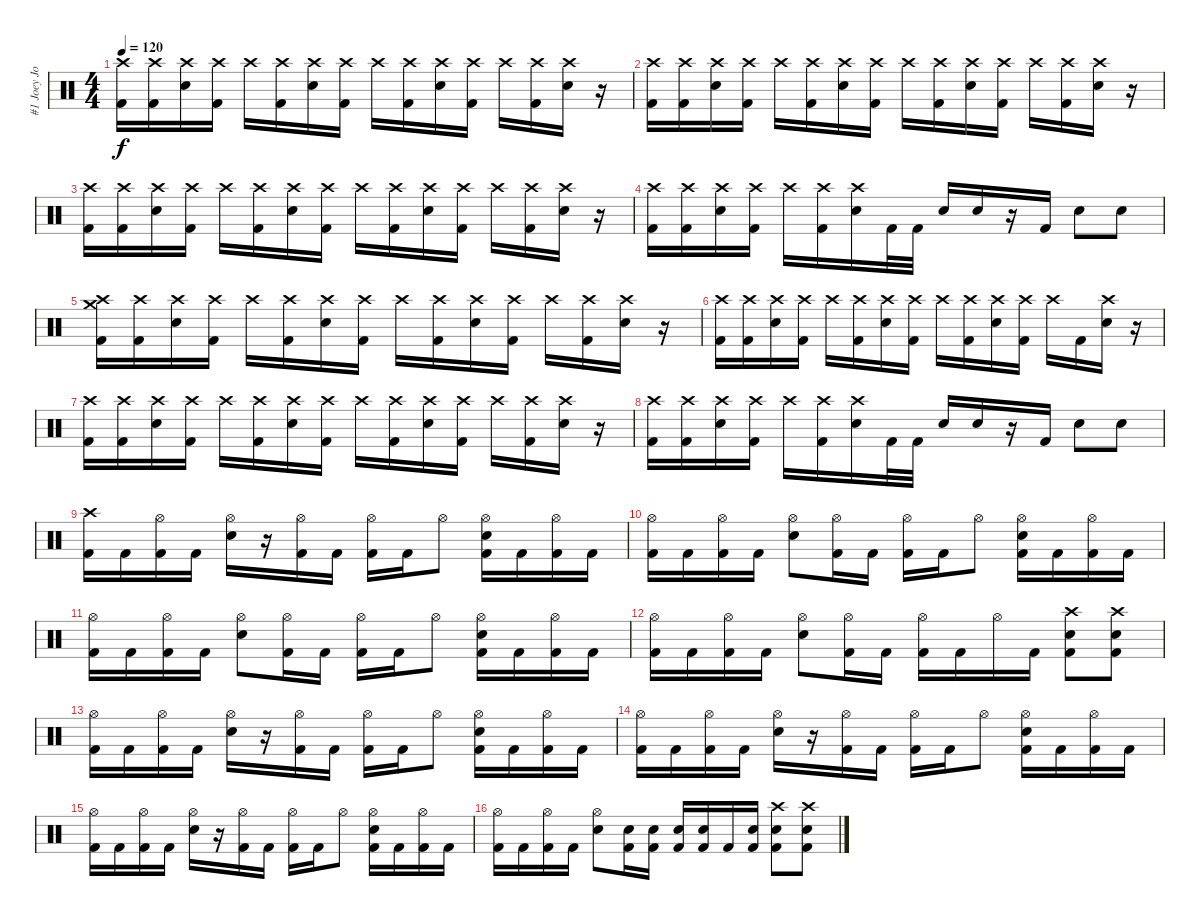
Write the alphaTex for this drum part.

\track ("#1 Joey Jordison" "#1 Joey Jo") {instrument percussion}
\staff {score}
\articulation defaults
\ts (4 4)
\tempo 120
\clef neutral
\ks c
("Crash high (hit)" "Kick (hit) 2").16{dy f} ("Crash high (hit)" "Kick (hit) 2").16 ("Crash high (hit)" "Electric Snare (hit)").16 ("Crash high (hit)" "Kick (hit) 2").16 "Crash high (hit)".16 ("Crash high (hit)" "Kick (hit) 2").16 ("Crash high (hit)" "Electric Snare (hit)").16 ("Crash high (hit)" "Kick (hit) 2").16 "Crash high (hit)".16 ("Crash high (hit)" "Kick (hit) 2").16 ("Crash high (hit)" "Electric Snare (hit)").16 ("Crash high (hit)" "Kick (hit) 2").16 "Crash high (hit)".16 ("Crash high (hit)" "Kick (hit) 2").16 ("Crash high (hit)" "Electric Snare (hit)").16 r.16 |
("Crash high (hit)" "Kick (hit) 2").16 ("Crash high (hit)" "Kick (hit) 2").16 ("Crash high (hit)" "Electric Snare (hit)").16 ("Crash high (hit)" "Kick (hit) 2").16 "Crash high (hit)".16 ("Crash high (hit)" "Kick (hit) 2").16 ("Crash high (hit)" "Electric Snare (hit)").16 ("Crash high (hit)" "Kick (hit) 2").16 "Crash high (hit)".16 ("Crash high (hit)" "Kick (hit) 2").16 ("Crash high (hit)" "Electric Snare (hit)").16 ("Crash high (hit)" "Kick (hit) 2").16 "Crash high (hit)".16 ("Crash high (hit)" "Kick (hit) 2").16 ("Crash high (hit)" "Electric Snare (hit)").16 r.16 |
("Crash high (hit)" "Kick (hit) 2").16 ("Crash high (hit)" "Kick (hit) 2").16 ("Crash high (hit)" "Electric Snare (hit)").16 ("Crash high (hit)" "Kick (hit) 2").16 "Crash high (hit)".16 ("Crash high (hit)" "Kick (hit) 2").16 ("Crash high (hit)" "Electric Snare (hit)").16 ("Crash high (hit)" "Kick (hit) 2").16 "Crash high (hit)".16 ("Crash high (hit)" "Kick (hit) 2").16 ("Crash high (hit)" "Electric Snare (hit)").16 ("Crash high (hit)" "Kick (hit) 2").16 "Crash high (hit)".16 ("Crash high (hit)" "Kick (hit) 2").16 ("Crash high (hit)" "Electric Snare (hit)").16 r.16 |
("Crash high (hit)" "Kick (hit) 2").16 ("Crash high (hit)" "Kick (hit) 2").16 ("Crash high (hit)" "Electric Snare (hit)").16 ("Crash high (hit)" "Kick (hit) 2").16 "Crash high (hit)".16 ("Crash high (hit)" "Kick (hit) 2").16 ("Crash high (hit)" "Electric Snare (hit)").16 "Kick (hit) 2".32 "Kick (hit) 2".32 "Electric Snare (hit)".16 "Electric Snare (hit)".16 r.16 "Kick (hit) 2".16 "Electric Snare (hit)".8 "Electric Snare (hit)".8 |
("Crash high (hit)" "Crash medium (hit)" "Kick (hit) 2").16 ("Crash high (hit)" "Kick (hit) 2").16 ("Crash high (hit)" "Electric Snare (hit)").16 ("Crash high (hit)" "Kick (hit) 2").16 "Crash high (hit)".16 ("Crash high (hit)" "Kick (hit) 2").16 ("Crash high (hit)" "Electric Snare (hit)").16 ("Crash high (hit)" "Kick (hit) 2").16 "Crash high (hit)".16 ("Crash high (hit)" "Kick (hit) 2").16 ("Crash high (hit)" "Electric Snare (hit)").16 ("Crash high (hit)" "Kick (hit) 2").16 "Crash high (hit)".16 ("Crash high (hit)" "Kick (hit) 2").16 ("Crash high (hit)" "Electric Snare (hit)").16 r.16 |
("Crash high (hit)" "Kick (hit) 2").16 ("Crash high (hit)" "Kick (hit) 2").16 ("Crash high (hit)" "Electric Snare (hit)").16 ("Crash high (hit)" "Kick (hit) 2").16 "Crash high (hit)".16 ("Crash high (hit)" "Kick (hit) 2").16 ("Crash high (hit)" "Electric Snare (hit)").16 ("Crash high (hit)" "Kick (hit) 2").16 "Crash high (hit)".16 ("Crash high (hit)" "Kick (hit) 2").16 ("Crash high (hit)" "Electric Snare (hit)").16 ("Crash high (hit)" "Kick (hit) 2").16 "Crash high (hit)".16 "Kick (hit) 2".16 ("Crash high (hit)" "Electric Snare (hit)").16 r.16 |
("Crash high (hit)" "Kick (hit) 2").16 ("Crash high (hit)" "Kick (hit) 2").16 ("Crash high (hit)" "Electric Snare (hit)").16 ("Crash high (hit)" "Kick (hit) 2").16 "Crash high (hit)".16 ("Crash high (hit)" "Kick (hit) 2").16 ("Crash high (hit)" "Electric Snare (hit)").16 ("Crash high (hit)" "Kick (hit) 2").16 "Crash high (hit)".16 ("Crash high (hit)" "Kick (hit) 2").16 ("Crash high (hit)" "Electric Snare (hit)").16 ("Crash high (hit)" "Kick (hit) 2").16 "Crash high (hit)".16 ("Crash high (hit)" "Kick (hit) 2").16 ("Crash high (hit)" "Electric Snare (hit)").16 r.16 |
("Crash high (hit)" "Kick (hit) 2").16 ("Crash high (hit)" "Kick (hit) 2").16 ("Crash high (hit)" "Electric Snare (hit)").16 ("Crash high (hit)" "Kick (hit) 2").16 "Crash high (hit)".16 ("Crash high (hit)" "Kick (hit) 2").16 ("Crash high (hit)" "Electric Snare (hit)").16 "Kick (hit) 2".32 "Kick (hit) 2".32 "Electric Snare (hit)".16 "Electric Snare (hit)".16 r.16 "Kick (hit) 2".16 "Electric Snare (hit)".8 "Electric Snare (hit)".8 |
("Crash high (hit)" "Kick (hit) 2").16 "Kick (hit) 2".16 ("Hi-Hat (open)" "Kick (hit) 2").16 "Kick (hit) 2".16 ("Hi-Hat (open)" "Electric Snare (hit)").16 r.16 ("Hi-Hat (open)" "Kick (hit) 2").16 "Kick (hit) 2".16 ("Hi-Hat (open)" "Kick (hit) 2").16 "Kick (hit) 2".16 "Hi-Hat (open)".8 ("Hi-Hat (open)" "Electric Snare (hit)" "Kick (hit) 2").16 "Kick (hit) 2".16 ("Hi-Hat (open)" "Kick (hit) 2").16 "Kick (hit) 2".16 |
("Hi-Hat (open)" "Kick (hit) 2").16 "Kick (hit) 2".16 ("Hi-Hat (open)" "Kick (hit) 2").16 "Kick (hit) 2".16 ("Hi-Hat (open)" "Electric Snare (hit)").8 ("Hi-Hat (open)" "Kick (hit) 2").16 "Kick (hit) 2".16 ("Hi-Hat (open)" "Kick (hit) 2").16 "Kick (hit) 2".16 "Hi-Hat (open)".8 ("Hi-Hat (open)" "Electric Snare (hit)" "Kick (hit) 2").16 "Kick (hit) 2".16 ("Hi-Hat (open)" "Kick (hit) 2").16 "Kick (hit) 2".16 |
("Hi-Hat (open)" "Kick (hit) 2").16 "Kick (hit) 2".16 ("Hi-Hat (open)" "Kick (hit) 2").16 "Kick (hit) 2".16 ("Hi-Hat (open)" "Electric Snare (hit)").8 ("Hi-Hat (open)" "Kick (hit) 2").16 "Kick (hit) 2".16 ("Hi-Hat (open)" "Kick (hit) 2").16 "Kick (hit) 2".16 "Hi-Hat (open)".8 ("Hi-Hat (open)" "Electric Snare (hit)" "Kick (hit) 2").16 "Kick (hit) 2".16 ("Hi-Hat (open)" "Kick (hit) 2").16 "Kick (hit) 2".16 |
("Hi-Hat (open)" "Kick (hit) 2").16 "Kick (hit) 2".16 ("Hi-Hat (open)" "Kick (hit) 2").16 "Kick (hit) 2".16 ("Hi-Hat (open)" "Electric Snare (hit)").8 ("Hi-Hat (open)" "Kick (hit) 2").16 "Kick (hit) 2".16 ("Hi-Hat (open)" "Kick (hit) 2").16 "Kick (hit) 2".16 "Hi-Hat (open)".16 "Kick (hit) 2".16 ("Electric Snare (hit)" "Crash high (hit)" "Kick (hit) 2").8 ("Electric Snare (hit)" "Crash high (hit)" "Kick (hit) 2").8 |
("Hi-Hat (open)" "Kick (hit) 2").16 "Kick (hit) 2".16 ("Hi-Hat (open)" "Kick (hit) 2").16 "Kick (hit) 2".16 ("Hi-Hat (open)" "Electric Snare (hit)").16 r.16 ("Hi-Hat (open)" "Kick (hit) 2").16 "Kick (hit) 2".16 ("Hi-Hat (open)" "Kick (hit) 2").16 "Kick (hit) 2".16 "Hi-Hat (open)".8 ("Hi-Hat (open)" "Electric Snare (hit)" "Kick (hit) 2").16 "Kick (hit) 2".16 ("Hi-Hat (open)" "Kick (hit) 2").16 "Kick (hit) 2".16 |
("Hi-Hat (open)" "Kick (hit) 2").16 "Kick (hit) 2".16 ("Hi-Hat (open)" "Kick (hit) 2").16 "Kick (hit) 2".16 ("Hi-Hat (open)" "Electric Snare (hit)").16 r.16 ("Hi-Hat (open)" "Kick (hit) 2").16 "Kick (hit) 2".16 ("Hi-Hat (open)" "Kick (hit) 2").16 "Kick (hit) 2".16 "Hi-Hat (open)".8 ("Hi-Hat (open)" "Electric Snare (hit)" "Kick (hit) 2").16 "Kick (hit) 2".16 ("Hi-Hat (open)" "Kick (hit) 2").16 "Kick (hit) 2".16 |
("Hi-Hat (open)" "Kick (hit) 2").16 "Kick (hit) 2".16 ("Hi-Hat (open)" "Kick (hit) 2").16 "Kick (hit) 2".16 ("Hi-Hat (open)" "Electric Snare (hit)").16 r.16 ("Hi-Hat (open)" "Kick (hit) 2").16 "Kick (hit) 2".16 ("Hi-Hat (open)" "Kick (hit) 2").16 "Kick (hit) 2".16 "Hi-Hat (open)".8 ("Hi-Hat (open)" "Electric Snare (hit)" "Kick (hit) 2").16 "Kick (hit) 2".16 ("Hi-Hat (open)" "Kick (hit) 2").16 "Kick (hit) 2".16 |
("Hi-Hat (open)" "Kick (hit) 2").16 "Kick (hit) 2".16 ("Hi-Hat (open)" "Kick (hit) 2").16 "Kick (hit) 2".16 ("Hi-Hat (open)" "Electric Snare (hit)").8 ("Electric Snare (hit)" "Kick (hit) 2").16 ("Electric Snare (hit)" "Kick (hit) 2").16 ("Electric Snare (hit)" "Kick (hit) 2").16 ("Electric Snare (hit)" "Kick (hit) 2").16 "Kick (hit) 2".16 ("Electric Snare (hit)" "Kick (hit) 2").16 ("Electric Snare (hit)" "Crash high (hit)" "Kick (hit) 2").8 ("Electric Snare (hit)" "Crash high (hit)" "Kick (hit) 2").8
